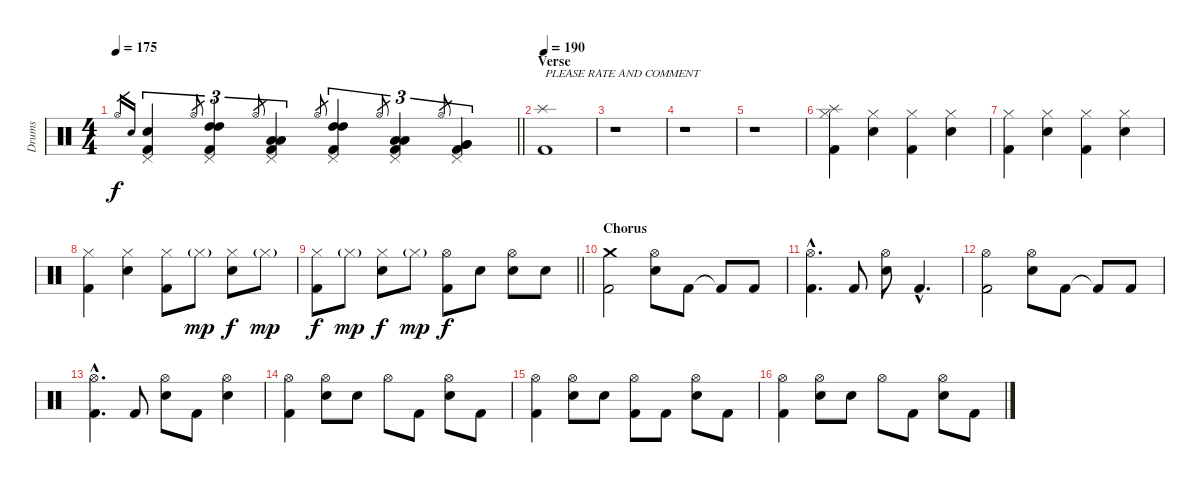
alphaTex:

\track ("Drums" "Drums") {instrument percussion}
\staff {score}
\articulation defaults
\ts (4 4)
\tempo 175
\clef neutral
\barLineRight lightlight
\ks c "Hi-Hat (open)"{h}.16{gr dy f} "Electric Snare (hit)"{h}.16{gr}
("Pedal Hi-Hat (hit)" "Electric Snare (hit)" "Kick (hit) 2").4{tu (3 2)} "Hi-Hat (open)"{h}.8{gr} ("Pedal Hi-Hat (hit)" "High Tom (hit)" "High Tom (hit)" "Kick (hit) 2").4{tu (3 2)} "Hi-Hat (open)"{h}.8{gr} ("Pedal Hi-Hat (hit)" "Low Tom (hit)" "Low Tom (hit)" "Kick (hit) 2").4{tu (3 2)} "Hi-Hat (open)"{h}.8{gr} ("Pedal Hi-Hat (hit)" "High Tom (hit)" "High Tom (hit)" "Kick (hit) 2").4{tu (3 2)} "Hi-Hat (open)"{h}.8{gr} ("Pedal Hi-Hat (hit)" "Low Tom (hit)" "Low Tom (hit)" "Kick (hit) 2").4{tu (3 2)} "Hi-Hat (open)"{h}.8{gr} ("Pedal Hi-Hat (hit)" "Very Low Tom (hit)" "Very Low Tom (hit)" "Kick (hit) 2").4{tu (3 2)} |
\section ("" "Verse")
\tempo 190
("Splash (hit)" "Kick (hit) 2").1{txt "PLEASE RATE AND COMMENT"} |
r.1 |
r.1 |
r.1 |
("Splash (hit)" "Hi-Hat (closed)" "Kick (hit) 2").4 ("Hi-Hat (closed)" "Electric Snare (hit)").4 ("Hi-Hat (closed)" "Kick (hit) 2").4 ("Hi-Hat (closed)" "Electric Snare (hit)").4 |
("Hi-Hat (closed)" "Kick (hit) 2").4 ("Hi-Hat (closed)" "Electric Snare (hit)").4 ("Hi-Hat (closed)" "Kick (hit) 2").4 ("Hi-Hat (closed)" "Electric Snare (hit)").4 |
("Hi-Hat (closed)" "Kick (hit) 2").4 ("Hi-Hat (closed)" "Electric Snare (hit)").4 ("Hi-Hat (closed)" "Kick (hit) 2").8 "Hi-Hat (closed)"{g}.8{dy mp} ("Hi-Hat (closed)" "Electric Snare (hit)").8{dy f} "Hi-Hat (closed)"{g}.8{dy mp} |
\barLineRight lightlight
("Hi-Hat (closed)" "Kick (hit) 2").8{dy f} "Hi-Hat (closed)"{g}.8{dy mp} ("Hi-Hat (closed)" "Electric Snare (hit)").8{dy f} "Hi-Hat (closed)"{g}.8{dy mp} ("Hi-Hat (open)" "Kick (hit) 2").8{dy f} "Electric Snare (hit)".8 ("Hi-Hat (open)" "Electric Snare (hit)").8 "Electric Snare (hit)".8 |
\section ("" "Chorus")
("Crash medium (hit)" "Kick (hit) 2").2 ("Hi-Hat (open)" "Electric Snare (hit)").8 "Kick (hit) 2".8 "Kick (hit) 2"{t}.8 "Kick (hit) 2".8 |
("Hi-Hat (open)"{hac} "Kick (hit) 2"{hac}).4{d} "Kick (hit) 2".8 ("Hi-Hat (open)" "Electric Snare (hit)").8 "Kick (hit) 2"{hac}.4{d} |
("Hi-Hat (open)" "Kick (hit) 2").2 ("Hi-Hat (open)" "Electric Snare (hit)").8 "Kick (hit) 2".8 "Kick (hit) 2"{t}.8 "Kick (hit) 2".8 |
("Hi-Hat (open)"{hac} "Kick (hit) 2"{hac}).4{d} "Kick (hit) 2".8 ("Hi-Hat (open)" "Electric Snare (hit)").8 "Kick (hit) 2".8 ("Hi-Hat (open)" "Electric Snare (hit)").4 |
("Hi-Hat (open)" "Kick (hit) 2").4 ("Hi-Hat (open)" "Electric Snare (hit)").8 "Electric Snare (hit)".8 "Hi-Hat (open)".8 "Kick (hit) 2".8 ("Hi-Hat (open)" "Electric Snare (hit)").8 "Kick (hit) 2".8 |
("Hi-Hat (open)" "Kick (hit) 2").4 ("Hi-Hat (open)" "Electric Snare (hit)").8 "Electric Snare (hit)".8 ("Hi-Hat (open)" "Kick (hit) 2").8 "Kick (hit) 2".8 ("Hi-Hat (open)" "Electric Snare (hit)").8 "Kick (hit) 2".8 |
("Hi-Hat (open)" "Kick (hit) 2").4 ("Hi-Hat (open)" "Electric Snare (hit)").8 "Electric Snare (hit)".8 "Hi-Hat (open)".8 "Kick (hit) 2".8 ("Hi-Hat (open)" "Electric Snare (hit)").8 "Kick (hit) 2".8
